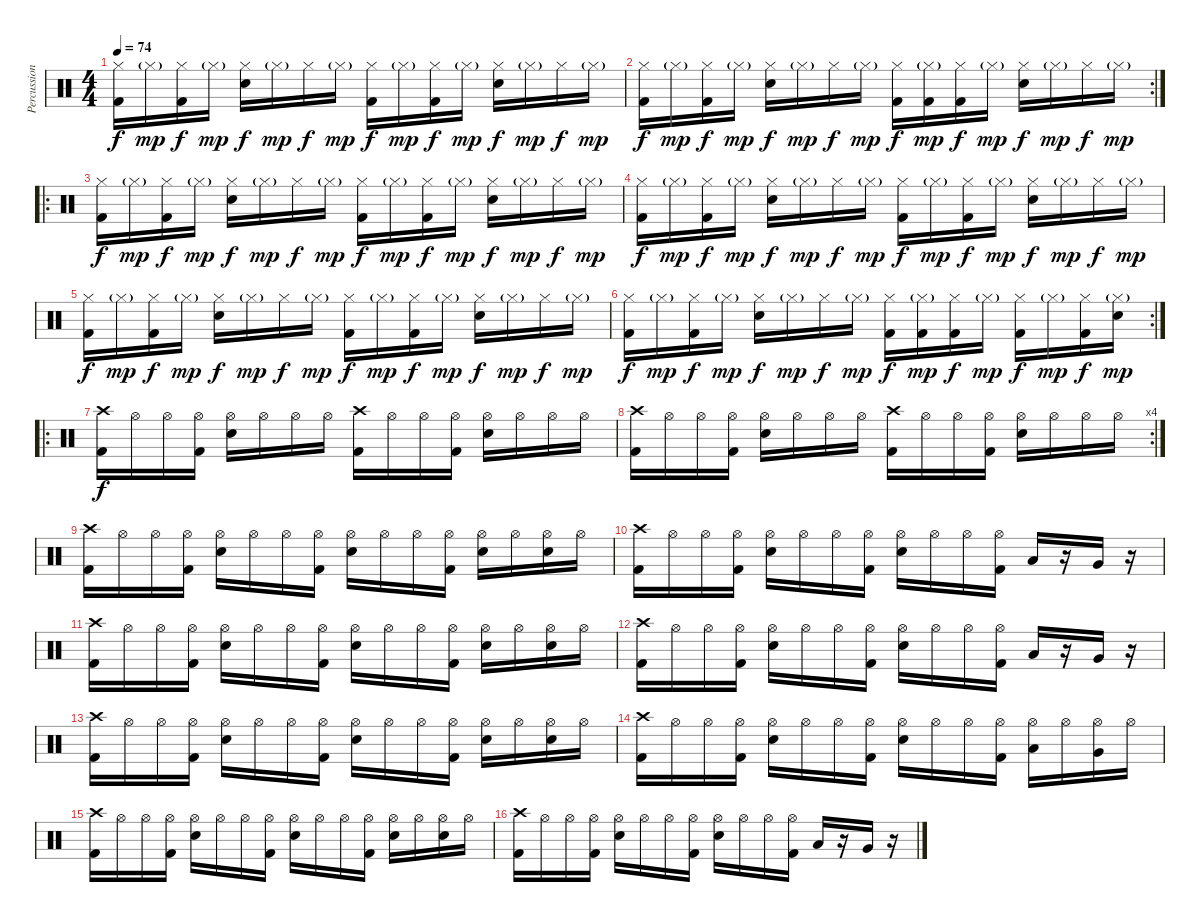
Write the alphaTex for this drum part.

\track ("Percussions" "Percussion") {instrument percussion}
\staff {score}
\articulation defaults
\ts (4 4)
\tempo 74
\clef neutral
\ks c
("Hi-Hat (closed)" "Kick (hit) 2").16{dy f} "Hi-Hat (closed)"{g}.16{dy mp} ("Hi-Hat (closed)" "Kick (hit) 2").16{dy f} "Hi-Hat (closed)"{g}.16{dy mp} ("Hi-Hat (closed)" "Snare (hit) 2").16{dy f} "Hi-Hat (closed)"{g}.16{dy mp} "Hi-Hat (closed)".16{dy f} "Hi-Hat (closed)"{g}.16{dy mp} ("Hi-Hat (closed)" "Kick (hit) 2").16{dy f} "Hi-Hat (closed)"{g}.16{dy mp} ("Hi-Hat (closed)" "Kick (hit) 2").16{dy f} "Hi-Hat (closed)"{g}.16{dy mp} ("Hi-Hat (closed)" "Snare (hit) 2").16{dy f} "Hi-Hat (closed)"{g}.16{dy mp} "Hi-Hat (closed)".16{dy f} "Hi-Hat (closed)"{g}.16{dy mp} |
\rc 2
("Hi-Hat (closed)" "Kick (hit) 2").16{dy f} "Hi-Hat (closed)"{g}.16{dy mp} ("Hi-Hat (closed)" "Kick (hit) 2").16{dy f} "Hi-Hat (closed)"{g}.16{dy mp} ("Hi-Hat (closed)" "Snare (hit) 2").16{dy f} "Hi-Hat (closed)"{g}.16{dy mp} "Hi-Hat (closed)".16{dy f} "Hi-Hat (closed)"{g}.16{dy mp} ("Hi-Hat (closed)" "Kick (hit) 2").16{dy f} ("Hi-Hat (closed)"{g} "Kick (hit) 2").16{dy mp} ("Hi-Hat (closed)" "Kick (hit) 2").16{dy f} "Hi-Hat (closed)"{g}.16{dy mp} ("Hi-Hat (closed)" "Snare (hit) 2").16{dy f} "Hi-Hat (closed)"{g}.16{dy mp} "Hi-Hat (closed)".16{dy f} "Hi-Hat (closed)"{g}.16{dy mp} |
\ro
("Hi-Hat (closed)" "Kick (hit) 2").16{dy f} "Hi-Hat (closed)"{g}.16{dy mp} ("Hi-Hat (closed)" "Kick (hit) 2").16{dy f} "Hi-Hat (closed)"{g}.16{dy mp} ("Hi-Hat (closed)" "Snare (hit) 2").16{dy f} "Hi-Hat (closed)"{g}.16{dy mp} "Hi-Hat (closed)".16{dy f} "Hi-Hat (closed)"{g}.16{dy mp} ("Hi-Hat (closed)" "Kick (hit) 2").16{dy f} "Hi-Hat (closed)"{g}.16{dy mp} ("Hi-Hat (closed)" "Kick (hit) 2").16{dy f} "Hi-Hat (closed)"{g}.16{dy mp} ("Hi-Hat (closed)" "Snare (hit) 2").16{dy f} "Hi-Hat (closed)"{g}.16{dy mp} "Hi-Hat (closed)".16{dy f} "Hi-Hat (closed)"{g}.16{dy mp} |
("Hi-Hat (closed)" "Kick (hit) 2").16{dy f} "Hi-Hat (closed)"{g}.16{dy mp} ("Hi-Hat (closed)" "Kick (hit) 2").16{dy f} "Hi-Hat (closed)"{g}.16{dy mp} ("Hi-Hat (closed)" "Snare (hit) 2").16{dy f} "Hi-Hat (closed)"{g}.16{dy mp} "Hi-Hat (closed)".16{dy f} "Hi-Hat (closed)"{g}.16{dy mp} ("Hi-Hat (closed)" "Kick (hit) 2").16{dy f} "Hi-Hat (closed)"{g}.16{dy mp} ("Hi-Hat (closed)" "Kick (hit) 2").16{dy f} "Hi-Hat (closed)"{g}.16{dy mp} ("Hi-Hat (closed)" "Snare (hit) 2").16{dy f} "Hi-Hat (closed)"{g}.16{dy mp} "Hi-Hat (closed)".16{dy f} "Hi-Hat (closed)"{g}.16{dy mp} |
("Hi-Hat (closed)" "Kick (hit) 2").16{dy f} "Hi-Hat (closed)"{g}.16{dy mp} ("Hi-Hat (closed)" "Kick (hit) 2").16{dy f} "Hi-Hat (closed)"{g}.16{dy mp} ("Hi-Hat (closed)" "Snare (hit) 2").16{dy f} "Hi-Hat (closed)"{g}.16{dy mp} "Hi-Hat (closed)".16{dy f} "Hi-Hat (closed)"{g}.16{dy mp} ("Hi-Hat (closed)" "Kick (hit) 2").16{dy f} "Hi-Hat (closed)"{g}.16{dy mp} ("Hi-Hat (closed)" "Kick (hit) 2").16{dy f} "Hi-Hat (closed)"{g}.16{dy mp} ("Hi-Hat (closed)" "Snare (hit) 2").16{dy f} "Hi-Hat (closed)"{g}.16{dy mp} "Hi-Hat (closed)".16{dy f} "Hi-Hat (closed)"{g}.16{dy mp} |
\rc 2
("Hi-Hat (closed)" "Kick (hit) 2").16{dy f} "Hi-Hat (closed)"{g}.16{dy mp} ("Hi-Hat (closed)" "Kick (hit) 2").16{dy f} "Hi-Hat (closed)"{g}.16{dy mp} ("Hi-Hat (closed)" "Snare (hit) 2").16{dy f} "Hi-Hat (closed)"{g}.16{dy mp} "Hi-Hat (closed)".16{dy f} "Hi-Hat (closed)"{g}.16{dy mp} ("Hi-Hat (closed)" "Kick (hit) 2").16{dy f} ("Hi-Hat (closed)"{g} "Kick (hit) 2").16{dy mp} ("Hi-Hat (closed)" "Kick (hit) 2").16{dy f} "Hi-Hat (closed)"{g}.16{dy mp} ("Hi-Hat (closed)" "Kick (hit) 2").16{dy f} "Hi-Hat (closed)"{g}.16{dy mp} ("Hi-Hat (closed)" "Kick (hit) 2").16{dy f} ("Hi-Hat (closed)"{g} "Snare (hit) 2").16{dy mp} |
\ro
("Crash high (hit)" "Kick (hit) 2").16{dy f} "Hi-Hat (open)".16 "Hi-Hat (open)".16 ("Hi-Hat (open)" "Kick (hit) 2").16 ("Hi-Hat (open)" "Snare (hit) 2").16 "Hi-Hat (open)".16 "Hi-Hat (open)".16 "Hi-Hat (open)".16 ("Crash high (hit)" "Kick (hit) 2").16 "Hi-Hat (open)".16 "Hi-Hat (open)".16 ("Hi-Hat (open)" "Kick (hit) 2").16 ("Hi-Hat (open)" "Snare (hit) 2").16 "Hi-Hat (open)".16 "Hi-Hat (open)".16 "Hi-Hat (open)".16 |
\rc 4
("Crash high (hit)" "Kick (hit) 2").16 "Hi-Hat (open)".16 "Hi-Hat (open)".16 ("Hi-Hat (open)" "Kick (hit) 2").16 ("Hi-Hat (open)" "Snare (hit) 2").16 "Hi-Hat (open)".16 "Hi-Hat (open)".16 "Hi-Hat (open)".16 ("Crash high (hit)" "Kick (hit) 2").16 "Hi-Hat (open)".16 "Hi-Hat (open)".16 ("Hi-Hat (open)" "Kick (hit) 2").16 ("Hi-Hat (open)" "Snare (hit) 2").16 "Hi-Hat (open)".16 "Hi-Hat (open)".16 "Hi-Hat (open)".16 |
("Crash high (hit)" "Kick (hit) 2").16 "Hi-Hat (open)".16 "Hi-Hat (open)".16 ("Hi-Hat (open)" "Kick (hit) 2").16 ("Hi-Hat (open)" "Snare (hit) 2").16 "Hi-Hat (open)".16 "Hi-Hat (open)".16 ("Hi-Hat (open)" "Kick (hit) 2").16 ("Hi-Hat (open)" "Snare (hit) 2").16 "Hi-Hat (open)".16 "Hi-Hat (open)".16 ("Hi-Hat (open)" "Kick (hit) 2").16 ("Hi-Hat (open)" "Snare (hit) 2").16 "Hi-Hat (open)".16 ("Hi-Hat (open)" "Snare (hit) 2").16 "Hi-Hat (open)".16 |
("Crash high (hit)" "Kick (hit) 2").16 "Hi-Hat (open)".16 "Hi-Hat (open)".16 ("Hi-Hat (open)" "Kick (hit) 2").16 ("Hi-Hat (open)" "Snare (hit) 2").16 "Hi-Hat (open)".16 "Hi-Hat (open)".16 ("Hi-Hat (open)" "Kick (hit) 2").16 ("Hi-Hat (open)" "Snare (hit) 2").16 "Hi-Hat (open)".16 "Hi-Hat (open)".16 ("Hi-Hat (open)" "Kick (hit) 2").16 "Low Tom (hit)".16 r.16 "Very Low Tom (hit)".16 r.16 |
("Crash high (hit)" "Kick (hit) 2").16 "Hi-Hat (open)".16 "Hi-Hat (open)".16 ("Hi-Hat (open)" "Kick (hit) 2").16 ("Hi-Hat (open)" "Snare (hit) 2").16 "Hi-Hat (open)".16 "Hi-Hat (open)".16 ("Hi-Hat (open)" "Kick (hit) 2").16 ("Hi-Hat (open)" "Snare (hit) 2").16 "Hi-Hat (open)".16 "Hi-Hat (open)".16 ("Hi-Hat (open)" "Kick (hit) 2").16 ("Hi-Hat (open)" "Snare (hit) 2").16 "Hi-Hat (open)".16 ("Hi-Hat (open)" "Snare (hit) 2").16 "Hi-Hat (open)".16 |
("Crash high (hit)" "Kick (hit) 2").16 "Hi-Hat (open)".16 "Hi-Hat (open)".16 ("Hi-Hat (open)" "Kick (hit) 2").16 ("Hi-Hat (open)" "Snare (hit) 2").16 "Hi-Hat (open)".16 "Hi-Hat (open)".16 ("Hi-Hat (open)" "Kick (hit) 2").16 ("Hi-Hat (open)" "Snare (hit) 2").16 "Hi-Hat (open)".16 "Hi-Hat (open)".16 ("Hi-Hat (open)" "Kick (hit) 2").16 "Low Tom (hit)".16 r.16 "Very Low Tom (hit)".16 r.16 |
("Crash high (hit)" "Kick (hit) 2").16 "Hi-Hat (open)".16 "Hi-Hat (open)".16 ("Hi-Hat (open)" "Kick (hit) 2").16 ("Hi-Hat (open)" "Snare (hit) 2").16 "Hi-Hat (open)".16 "Hi-Hat (open)".16 ("Hi-Hat (open)" "Kick (hit) 2").16 ("Hi-Hat (open)" "Snare (hit) 2").16 "Hi-Hat (open)".16 "Hi-Hat (open)".16 ("Hi-Hat (open)" "Kick (hit) 2").16 ("Hi-Hat (open)" "Snare (hit) 2").16 "Hi-Hat (open)".16 ("Hi-Hat (open)" "Snare (hit) 2").16 "Hi-Hat (open)".16 |
("Crash high (hit)" "Kick (hit) 2").16 "Hi-Hat (open)".16 "Hi-Hat (open)".16 ("Hi-Hat (open)" "Kick (hit) 2").16 ("Hi-Hat (open)" "Snare (hit) 2").16 "Hi-Hat (open)".16 "Hi-Hat (open)".16 ("Hi-Hat (open)" "Kick (hit) 2").16 ("Hi-Hat (open)" "Snare (hit) 2").16 "Hi-Hat (open)".16 "Hi-Hat (open)".16 ("Hi-Hat (open)" "Kick (hit) 2").16 ("Hi-Hat (open)" "Low Tom (hit)").16 "Hi-Hat (open)".16 ("Hi-Hat (open)" "Very Low Tom (hit)").16 "Hi-Hat (open)".16 |
("Crash high (hit)" "Kick (hit) 2").16 "Hi-Hat (open)".16 "Hi-Hat (open)".16 ("Hi-Hat (open)" "Kick (hit) 2").16 ("Hi-Hat (open)" "Snare (hit) 2").16 "Hi-Hat (open)".16 "Hi-Hat (open)".16 ("Hi-Hat (open)" "Kick (hit) 2").16 ("Hi-Hat (open)" "Snare (hit) 2").16 "Hi-Hat (open)".16 "Hi-Hat (open)".16 ("Hi-Hat (open)" "Kick (hit) 2").16 ("Hi-Hat (open)" "Snare (hit) 2").16 "Hi-Hat (open)".16 ("Hi-Hat (open)" "Snare (hit) 2").16 "Hi-Hat (open)".16 |
("Crash high (hit)" "Kick (hit) 2").16 "Hi-Hat (open)".16 "Hi-Hat (open)".16 ("Hi-Hat (open)" "Kick (hit) 2").16 ("Hi-Hat (open)" "Snare (hit) 2").16 "Hi-Hat (open)".16 "Hi-Hat (open)".16 ("Hi-Hat (open)" "Kick (hit) 2").16 ("Hi-Hat (open)" "Snare (hit) 2").16 "Hi-Hat (open)".16 "Hi-Hat (open)".16 ("Hi-Hat (open)" "Kick (hit) 2").16 "Low Tom (hit)".16 r.16 "Very Low Tom (hit)".16 r.16
